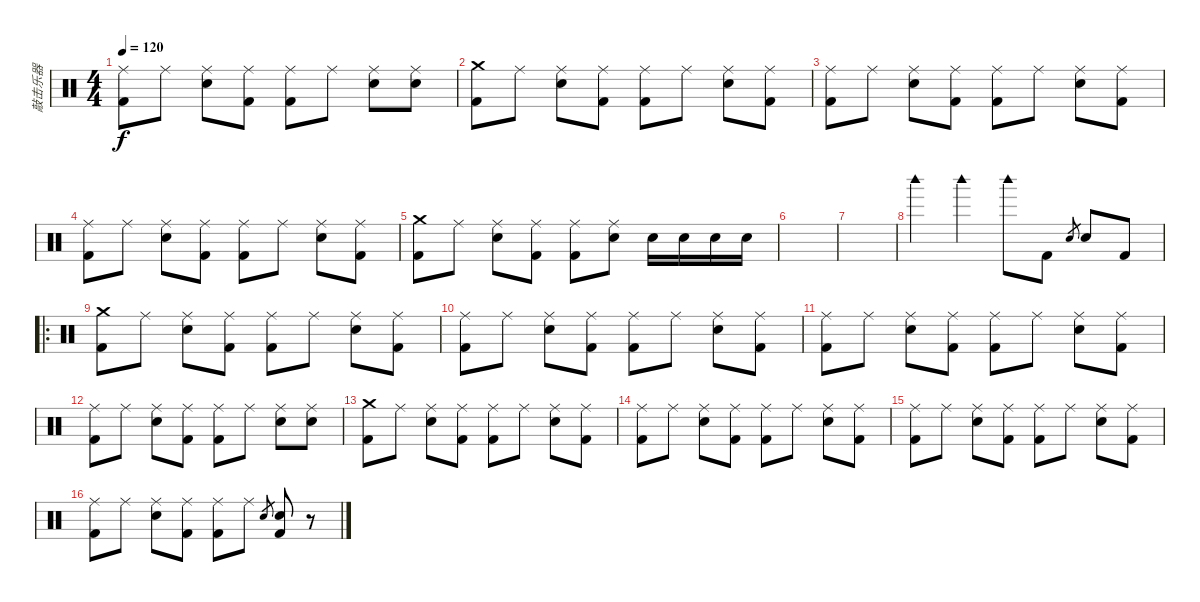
\track ("敲击乐器" "敲击乐器") {instrument percussion}
\staff {score}
\articulation defaults
\ts (4 4)
\tempo 120
\clef neutral
\ks c
("Ride (middle)" "Kick (hit) 2").8{dy f} "Ride (middle)".8 ("Ride (middle)" "Electric Snare (hit)").8 ("Ride (middle)" "Kick (hit) 2").8 ("Ride (middle)" "Kick (hit) 2").8 "Ride (middle)".8 ("Ride (middle)" "Electric Snare (hit)").8 ("Ride (middle)" "Electric Snare (hit)").8 |
("Crash medium (hit)" "Kick (hit) 2").8 "Ride (middle)".8 ("Ride (middle)" "Electric Snare (hit)").8 ("Ride (middle)" "Kick (hit) 2").8 ("Ride (middle)" "Kick (hit) 2").8 "Ride (middle)".8 ("Ride (middle)" "Electric Snare (hit)").8 ("Ride (middle)" "Kick (hit) 2").8 |
("Ride (middle)" "Kick (hit) 2").8 "Ride (middle)".8 ("Ride (middle)" "Electric Snare (hit)").8 ("Ride (middle)" "Kick (hit) 2").8 ("Ride (middle)" "Kick (hit) 2").8 "Ride (middle)".8 ("Ride (middle)" "Electric Snare (hit)").8 ("Ride (middle)" "Kick (hit) 2").8 |
("Ride (middle)" "Kick (hit) 2").8 "Ride (middle)".8 ("Ride (middle)" "Electric Snare (hit)").8 ("Ride (middle)" "Kick (hit) 2").8 ("Ride (middle)" "Kick (hit) 2").8 "Ride (middle)".8 ("Ride (middle)" "Electric Snare (hit)").8 ("Ride (middle)" "Kick (hit) 2").8 |
("Crash medium (hit)" "Kick (hit) 2").8 "Ride (middle)".8 ("Ride (middle)" "Electric Snare (hit)").8 ("Ride (middle)" "Kick (hit) 2").8 ("Ride (middle)" "Kick (hit) 2").8 ("Ride (middle)" "Electric Snare (hit)").8 "Electric Snare (hit)".16 "Electric Snare (hit)".16 "Electric Snare (hit)".16 "Electric Snare (hit)".16 |
|
|
"Woodblock high (hit)".4 "Woodblock high (hit)".4 "Woodblock high (hit)".8 "Kick (hit) 2".8 "Electric Snare (hit)".8{gr} "Electric Snare (hit)".8 "Kick (hit) 2".8 |
\ro
("Crash medium (hit)" "Kick (hit) 2").8 "Ride (middle)".8 ("Ride (middle)" "Electric Snare (hit)").8 ("Ride (middle)" "Kick (hit) 2").8 ("Ride (middle)" "Kick (hit) 2").8 "Ride (middle)".8 ("Ride (middle)" "Electric Snare (hit)").8 ("Ride (middle)" "Kick (hit) 2").8 |
("Ride (middle)" "Kick (hit) 2").8 "Ride (middle)".8 ("Ride (middle)" "Electric Snare (hit)").8 ("Ride (middle)" "Kick (hit) 2").8 ("Ride (middle)" "Kick (hit) 2").8 "Ride (middle)".8 ("Ride (middle)" "Electric Snare (hit)").8 ("Ride (middle)" "Kick (hit) 2").8 |
("Ride (middle)" "Kick (hit) 2").8 "Ride (middle)".8 ("Ride (middle)" "Electric Snare (hit)").8 ("Ride (middle)" "Kick (hit) 2").8 ("Ride (middle)" "Kick (hit) 2").8 "Ride (middle)".8 ("Ride (middle)" "Electric Snare (hit)").8 ("Ride (middle)" "Kick (hit) 2").8 |
("Ride (middle)" "Kick (hit) 2").8 "Ride (middle)".8 ("Ride (middle)" "Electric Snare (hit)").8 ("Ride (middle)" "Kick (hit) 2").8 ("Ride (middle)" "Kick (hit) 2").8 "Ride (middle)".8 ("Ride (middle)" "Electric Snare (hit)").8 ("Ride (middle)" "Electric Snare (hit)").8 |
("Crash medium (hit)" "Kick (hit) 2").8 "Ride (middle)".8 ("Ride (middle)" "Electric Snare (hit)").8 ("Ride (middle)" "Kick (hit) 2").8 ("Ride (middle)" "Kick (hit) 2").8 "Ride (middle)".8 ("Ride (middle)" "Electric Snare (hit)").8 ("Ride (middle)" "Kick (hit) 2").8 |
("Ride (middle)" "Kick (hit) 2").8 "Ride (middle)".8 ("Ride (middle)" "Electric Snare (hit)").8 ("Ride (middle)" "Kick (hit) 2").8 ("Ride (middle)" "Kick (hit) 2").8 "Ride (middle)".8 ("Ride (middle)" "Electric Snare (hit)").8 ("Ride (middle)" "Kick (hit) 2").8 |
("Ride (middle)" "Kick (hit) 2").8 "Ride (middle)".8 ("Ride (middle)" "Electric Snare (hit)").8 ("Ride (middle)" "Kick (hit) 2").8 ("Ride (middle)" "Kick (hit) 2").8 "Ride (middle)".8 ("Ride (middle)" "Electric Snare (hit)").8 ("Ride (middle)" "Kick (hit) 2").8 |
("Ride (middle)" "Kick (hit) 2").8 "Ride (middle)".8 ("Ride (middle)" "Electric Snare (hit)").8 ("Ride (middle)" "Kick (hit) 2").8 ("Ride (middle)" "Kick (hit) 2").8 "Ride (middle)".8 "Electric Snare (hit)".8{gr} ("Electric Snare (hit)" "Kick (hit) 2").8 r.8
